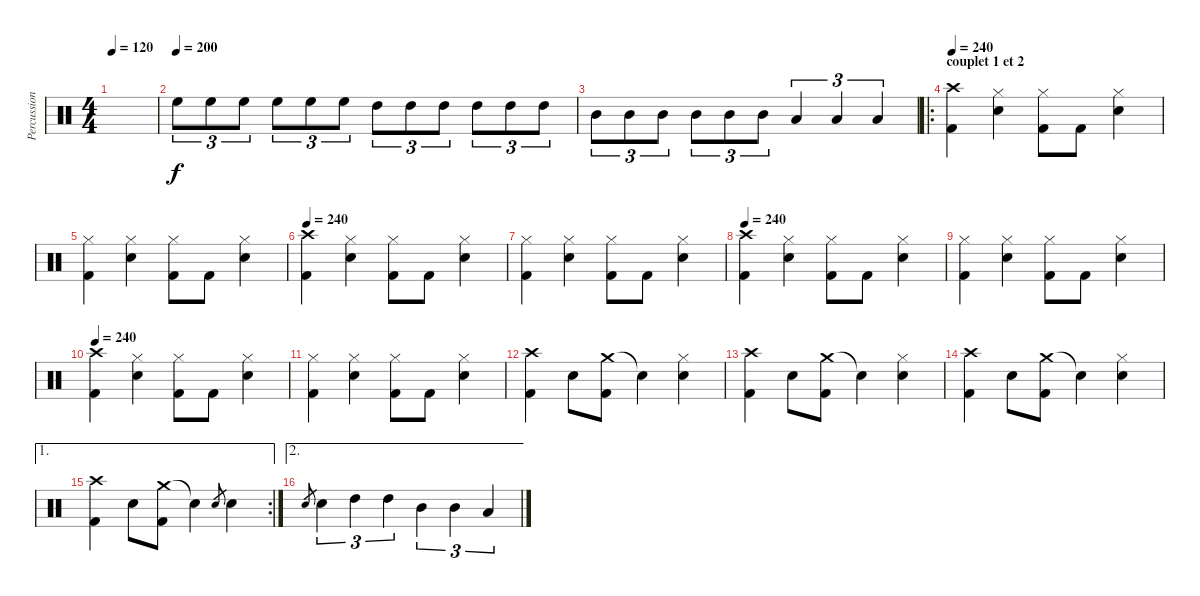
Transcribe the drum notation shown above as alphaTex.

\track ("Percussions" "Percussion") {instrument percussion}
\staff {score}
\articulation defaults
\ts (4 4)
\tempo 120
\clef neutral
\ks c
|
\tempo (200)
"High Floor Tom (hit)".8{tu (3 2)} "High Floor Tom (hit)".8{tu (3 2)} "High Floor Tom (hit)".8{tu (3 2)} "High Floor Tom (hit)".8{tu (3 2)} "High Floor Tom (hit)".8{tu (3 2)} "High Floor Tom (hit)".8{tu (3 2)} "High Tom (hit)".8{tu (3 2)} "High Tom (hit)".8{tu (3 2)} "High Tom (hit)".8{tu (3 2)} "High Tom (hit)".8{tu (3 2)} "High Tom (hit)".8{tu (3 2)} "High Tom (hit)".8{tu (3 2)} |
"Mid Tom (hit)".8{tu (3 2)} "Mid Tom (hit)".8{tu (3 2)} "Mid Tom (hit)".8{tu (3 2)} "Mid Tom (hit)".8{tu (3 2)} "Mid Tom (hit)".8{tu (3 2)} "Mid Tom (hit)".8{tu (3 2)} "Low Tom (hit)".4{tu (3 2)} "Low Tom (hit)".4{tu (3 2)} "Low Tom (hit)".4{tu (3 2)} |
\ro
\section ("" "couplet 1 et 2")
\tempo 240
("Crash high (hit)" "Kick (hit) 2").4 ("Hi-Hat (closed)" "Electric Snare (hit)").4 ("Hi-Hat (closed)" "Kick (hit) 2").8 "Kick (hit) 2".8 ("Hi-Hat (closed)" "Electric Snare (hit)").4 |
("Hi-Hat (closed)" "Kick (hit) 2").4 ("Hi-Hat (closed)" "Electric Snare (hit)").4 ("Hi-Hat (closed)" "Kick (hit) 2").8 "Kick (hit) 2".8 ("Hi-Hat (closed)" "Electric Snare (hit)").4 |
\tempo 240
("Crash high (hit)" "Kick (hit) 2").4 ("Hi-Hat (closed)" "Electric Snare (hit)").4 ("Hi-Hat (closed)" "Kick (hit) 2").8 "Kick (hit) 2".8 ("Hi-Hat (closed)" "Electric Snare (hit)").4 |
("Hi-Hat (closed)" "Kick (hit) 2").4 ("Hi-Hat (closed)" "Electric Snare (hit)").4 ("Hi-Hat (closed)" "Kick (hit) 2").8 "Kick (hit) 2".8 ("Hi-Hat (closed)" "Electric Snare (hit)").4 |
\tempo 240
("Crash high (hit)" "Kick (hit) 2").4 ("Hi-Hat (closed)" "Electric Snare (hit)").4 ("Hi-Hat (closed)" "Kick (hit) 2").8 "Kick (hit) 2".8 ("Hi-Hat (closed)" "Electric Snare (hit)").4 |
("Hi-Hat (closed)" "Kick (hit) 2").4 ("Hi-Hat (closed)" "Electric Snare (hit)").4 ("Hi-Hat (closed)" "Kick (hit) 2").8 "Kick (hit) 2".8 ("Hi-Hat (closed)" "Electric Snare (hit)").4 |
\tempo 240
("Crash high (hit)" "Kick (hit) 2").4 ("Hi-Hat (closed)" "Electric Snare (hit)").4 ("Hi-Hat (closed)" "Kick (hit) 2").8 "Kick (hit) 2".8 ("Hi-Hat (closed)" "Electric Snare (hit)").4 |
("Hi-Hat (closed)" "Kick (hit) 2").4 ("Hi-Hat (closed)" "Electric Snare (hit)").4 ("Hi-Hat (closed)" "Kick (hit) 2").8 "Kick (hit) 2".8 ("Hi-Hat (closed)" "Electric Snare (hit)").4 |
("Crash high (hit)" "Kick (hit) 2").4 "Electric Snare (hit)".8 ("Crash medium (hit)" "Kick (hit) 2").8 "Snare (hit)"{t}.4 ("Hi-Hat (closed)" "Electric Snare (hit)").4 |
("Crash high (hit)" "Kick (hit) 2").4 "Electric Snare (hit)".8 ("Crash medium (hit)" "Kick (hit) 2").8 "Snare (hit)"{t}.4 ("Hi-Hat (closed)" "Electric Snare (hit)").4 |
("Crash high (hit)" "Kick (hit) 2").4 "Electric Snare (hit)".8 ("Crash medium (hit)" "Kick (hit) 2").8 "Snare (hit)"{t}.4 ("Hi-Hat (closed)" "Electric Snare (hit)").4 |
\ae 1
\rc 2
("Crash high (hit)" "Kick (hit) 2").4 "Electric Snare (hit)".8 ("Crash medium (hit)" "Kick (hit) 2").8 "Snare (hit)"{t}.4 "Electric Snare (hit)".8{gr} "Electric Snare (hit)".4 |
\ae 2 "Electric Snare (hit)".8{gr} "Electric Snare (hit)".4{tu (3 2)} "High Tom (hit)".4{tu (3 2)} "High Tom (hit)".4{tu (3 2)} "Mid Tom (hit)".4{tu (3 2)} "Mid Tom (hit)".4{tu (3 2)} "Low Tom (hit)".4{tu (3 2)}
